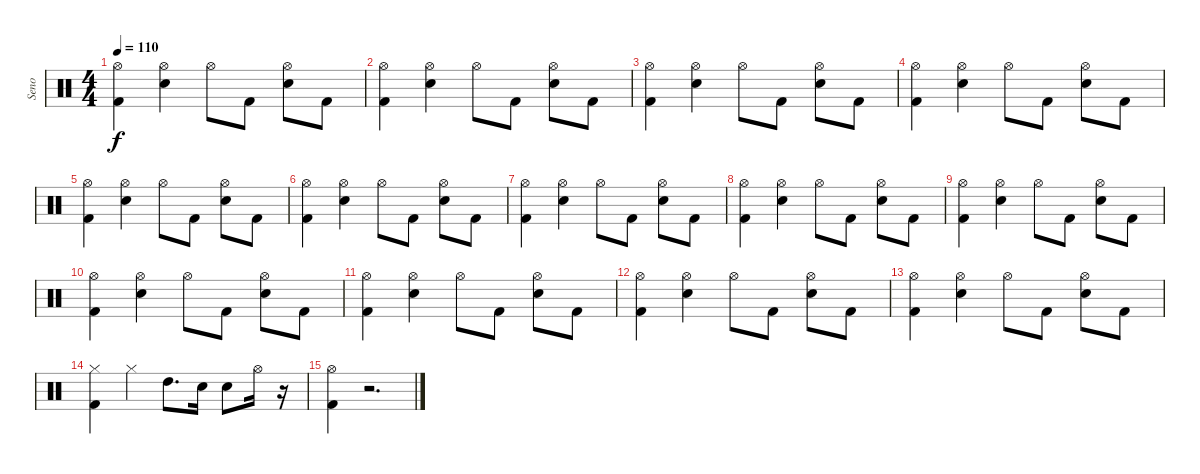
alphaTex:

\track ("Seno" "Seno") {instrument percussion}
\staff {score}
\articulation defaults
\ts (4 4)
\tempo 110
\clef neutral
\ks c
("Kick (hit) 2" "Hi-Hat (open)").4{dy f} ("Snare (hit) 2" "Hi-Hat (open)").4 "Hi-Hat (open)".8 "Kick (hit) 2".8 ("Hi-Hat (open)" "Snare (hit) 2").8 "Kick (hit) 2".8 |
("Kick (hit) 2" "Hi-Hat (open)").4 ("Snare (hit) 2" "Hi-Hat (open)").4 "Hi-Hat (open)".8 "Kick (hit) 2".8 ("Hi-Hat (open)" "Snare (hit) 2").8 "Kick (hit) 2".8 |
("Kick (hit) 2" "Hi-Hat (open)").4 ("Snare (hit) 2" "Hi-Hat (open)").4 "Hi-Hat (open)".8 "Kick (hit) 2".8 ("Hi-Hat (open)" "Snare (hit) 2").8 "Kick (hit) 2".8 |
("Kick (hit) 2" "Hi-Hat (open)").4 ("Snare (hit) 2" "Hi-Hat (open)").4 "Hi-Hat (open)".8 "Kick (hit) 2".8 ("Hi-Hat (open)" "Snare (hit) 2").8 "Kick (hit) 2".8 |
("Kick (hit) 2" "Hi-Hat (open)").4 ("Snare (hit) 2" "Hi-Hat (open)").4 "Hi-Hat (open)".8 "Kick (hit) 2".8 ("Hi-Hat (open)" "Snare (hit) 2").8 "Kick (hit) 2".8 |
("Kick (hit) 2" "Hi-Hat (open)").4 ("Snare (hit) 2" "Hi-Hat (open)").4 "Hi-Hat (open)".8 "Kick (hit) 2".8 ("Hi-Hat (open)" "Snare (hit) 2").8 "Kick (hit) 2".8 |
("Kick (hit) 2" "Hi-Hat (open)").4 ("Snare (hit) 2" "Hi-Hat (open)").4 "Hi-Hat (open)".8 "Kick (hit) 2".8 ("Hi-Hat (open)" "Snare (hit) 2").8 "Kick (hit) 2".8 |
("Kick (hit) 2" "Hi-Hat (open)").4 ("Snare (hit) 2" "Hi-Hat (open)").4 "Hi-Hat (open)".8 "Kick (hit) 2".8 ("Hi-Hat (open)" "Snare (hit) 2").8 "Kick (hit) 2".8 |
("Kick (hit) 2" "Hi-Hat (open)").4 ("Snare (hit) 2" "Hi-Hat (open)").4 "Hi-Hat (open)".8 "Kick (hit) 2".8 ("Hi-Hat (open)" "Snare (hit) 2").8 "Kick (hit) 2".8 |
("Kick (hit) 2" "Hi-Hat (open)").4 ("Snare (hit) 2" "Hi-Hat (open)").4 "Hi-Hat (open)".8 "Kick (hit) 2".8 ("Hi-Hat (open)" "Snare (hit) 2").8 "Kick (hit) 2".8 |
("Kick (hit) 2" "Hi-Hat (open)").4 ("Snare (hit) 2" "Hi-Hat (open)").4 "Hi-Hat (open)".8 "Kick (hit) 2".8 ("Hi-Hat (open)" "Snare (hit) 2").8 "Kick (hit) 2".8 |
("Kick (hit) 2" "Hi-Hat (open)").4 ("Snare (hit) 2" "Hi-Hat (open)").4 "Hi-Hat (open)".8 "Kick (hit) 2".8 ("Hi-Hat (open)" "Snare (hit) 2").8 "Kick (hit) 2".8 |
("Kick (hit) 2" "Hi-Hat (open)").4 ("Snare (hit) 2" "Hi-Hat (open)").4 "Hi-Hat (open)".8 "Kick (hit) 2".8 ("Hi-Hat (open)" "Snare (hit) 2").8 "Kick (hit) 2".8 |
("Kick (hit) 2" "Hi-Hat (closed)").4 "Hi-Hat (closed)".4 "High Tom (hit)".8{d} "Snare (hit) 2".16 "Snare (hit) 2".8 "Hi-Hat (open)".16 r.16 |
("Kick (hit) 2" "Hi-Hat (open)").4 r.2{d}
